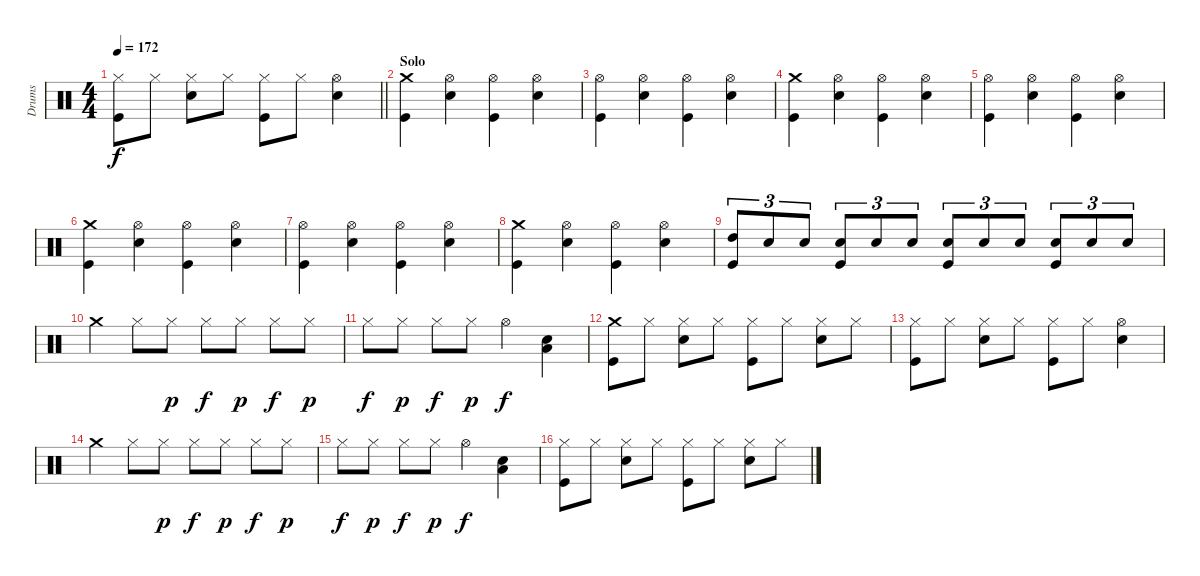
\track ("Drums" "Drums") {instrument percussion}
\staff {score}
\articulation defaults
\ts (4 4)
\tempo 172
\clef neutral
\barLineRight lightlight
\ks c
("Hi-Hat (closed)" "Kick (hit)").8{dy f} "Hi-Hat (closed)".8 ("Hi-Hat (closed)" "Snare (hit) 2").8 "Hi-Hat (closed)".8 ("Hi-Hat (closed)" "Kick (hit)").8 "Hi-Hat (closed)".8 ("Hi-Hat (open)" "Snare (hit) 2").4 |
\section ("" "Solo")
("Crash medium (hit)" "Kick (hit)").4 ("Hi-Hat (open)" "Snare (hit) 2").4 ("Hi-Hat (open)" "Kick (hit)").4 ("Hi-Hat (open)" "Snare (hit) 2").4 |
("Hi-Hat (open)" "Kick (hit)").4 ("Hi-Hat (open)" "Snare (hit) 2").4 ("Hi-Hat (open)" "Kick (hit)").4 ("Hi-Hat (open)" "Snare (hit) 2").4 |
("Crash medium (hit)" "Kick (hit)").4 ("Hi-Hat (open)" "Snare (hit) 2").4 ("Hi-Hat (open)" "Kick (hit)").4 ("Hi-Hat (open)" "Snare (hit) 2").4 |
("Hi-Hat (open)" "Kick (hit)").4 ("Hi-Hat (open)" "Snare (hit) 2").4 ("Hi-Hat (open)" "Kick (hit)").4 ("Hi-Hat (open)" "Snare (hit) 2").4 |
("Crash medium (hit)" "Kick (hit)").4 ("Hi-Hat (open)" "Snare (hit) 2").4 ("Hi-Hat (open)" "Kick (hit)").4 ("Hi-Hat (open)" "Snare (hit) 2").4 |
("Hi-Hat (open)" "Kick (hit)").4 ("Hi-Hat (open)" "Snare (hit) 2").4 ("Hi-Hat (open)" "Kick (hit)").4 ("Hi-Hat (open)" "Snare (hit) 2").4 |
("Crash medium (hit)" "Kick (hit)").4 ("Hi-Hat (open)" "Snare (hit) 2").4 ("Hi-Hat (open)" "Kick (hit)").4 ("Hi-Hat (open)" "Snare (hit) 2").4 |
("High Tom (hit)" "Kick (hit)").8{tu (3 2)} "Snare (hit) 2".8{tu (3 2)} "Snare (hit) 2".8{tu (3 2)} ("Snare (hit) 2" "Kick (hit)").8{tu (3 2)} "Snare (hit) 2".8{tu (3 2)} "Snare (hit) 2".8{tu (3 2)} ("Snare (hit) 2" "Kick (hit)").8{tu (3 2)} "Snare (hit) 2".8{tu (3 2)} "Snare (hit) 2".8{tu (3 2)} ("Snare (hit) 2" "Kick (hit)").8{tu (3 2)} "Snare (hit) 2".8{tu (3 2)} "Snare (hit) 2".8{tu (3 2)} |
"Crash medium (hit)".4 "Hi-Hat (closed)".8 "Hi-Hat (closed)".8{dy p} "Hi-Hat (closed)".8{dy f} "Hi-Hat (closed)".8{dy p} "Hi-Hat (closed)".8{dy f} "Hi-Hat (closed)".8{dy p} |
"Hi-Hat (closed)".8{dy f} "Hi-Hat (closed)".8{dy p} "Hi-Hat (closed)".8{dy f} "Hi-Hat (closed)".8{dy p} "Hi-Hat (open)".4{dy f} ("Snare (hit) 2" "Low Floor Tom (hit)").4 |
("Crash medium (hit)" "Kick (hit)").8 "Hi-Hat (closed)".8 ("Hi-Hat (closed)" "Snare (hit) 2").8 "Hi-Hat (closed)".8 ("Hi-Hat (closed)" "Kick (hit)").8 "Hi-Hat (closed)".8 ("Hi-Hat (closed)" "Snare (hit) 2").8 "Hi-Hat (closed)".8 |
("Hi-Hat (closed)" "Kick (hit)").8 "Hi-Hat (closed)".8 ("Hi-Hat (closed)" "Snare (hit) 2").8 "Hi-Hat (closed)".8 ("Hi-Hat (closed)" "Kick (hit)").8 "Hi-Hat (closed)".8 ("Hi-Hat (open)" "Snare (hit) 2").4 |
"Crash medium (hit)".4 "Hi-Hat (closed)".8 "Hi-Hat (closed)".8{dy p} "Hi-Hat (closed)".8{dy f} "Hi-Hat (closed)".8{dy p} "Hi-Hat (closed)".8{dy f} "Hi-Hat (closed)".8{dy p} |
"Hi-Hat (closed)".8{dy f} "Hi-Hat (closed)".8{dy p} "Hi-Hat (closed)".8{dy f} "Hi-Hat (closed)".8{dy p} "Hi-Hat (open)".4{dy f} ("Snare (hit) 2" "Low Floor Tom (hit)").4 |
("Hi-Hat (closed)" "Kick (hit)").8 "Hi-Hat (closed)".8 ("Hi-Hat (closed)" "Snare (hit) 2").8 "Hi-Hat (closed)".8 ("Hi-Hat (closed)" "Kick (hit)").8 "Hi-Hat (closed)".8 ("Hi-Hat (closed)" "Snare (hit) 2").8 "Hi-Hat (closed)".8
